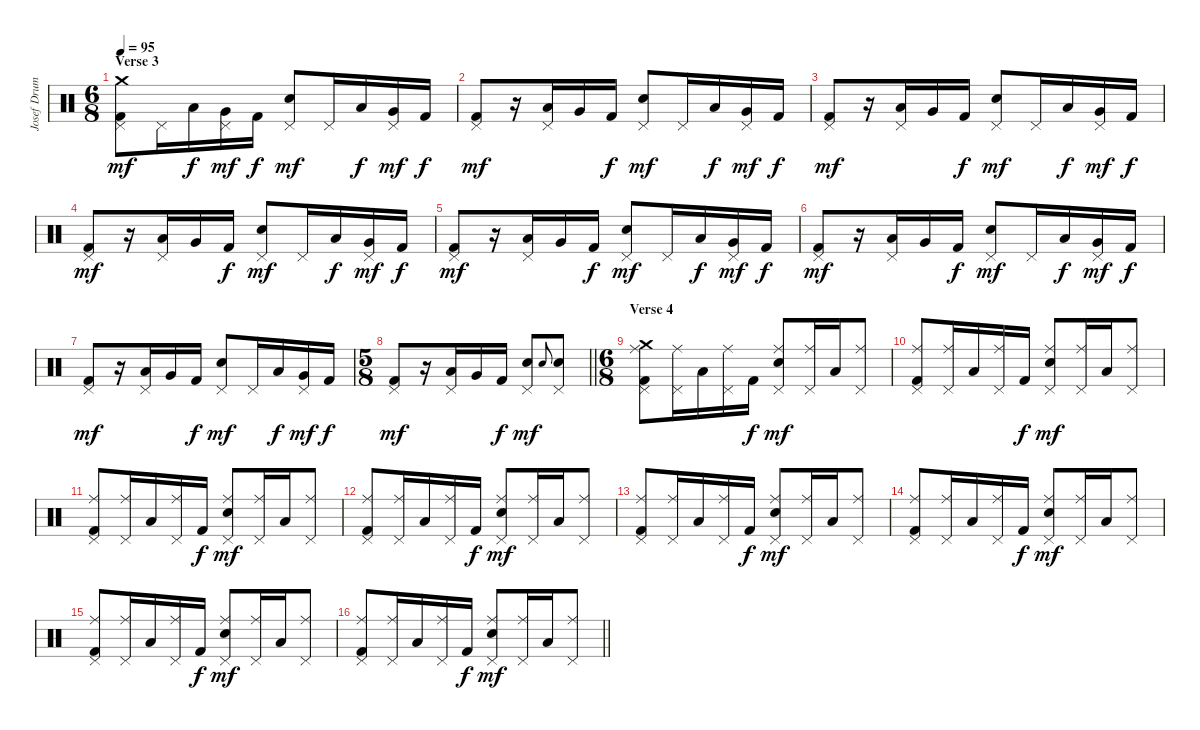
\track ("Josef Drums" "Josef Drum") {instrument percussion}
\staff {score}
\articulation defaults
\ts (6 8)
\section ("" "Verse 3")
\tempo 95
\clef neutral
\ks c
("Crash medium (hit)" "Kick (hit) 2" "Pedal Hi-Hat (hit)").8{dy mf} "Pedal Hi-Hat (hit)".16 "Low Tom (hit)".16{dy f} ("Very Low Tom (hit)" "Pedal Hi-Hat (hit)").16{dy mf} "Kick (hit) 2".16{dy f} ("Electric Snare (hit)" "Pedal Hi-Hat (hit)").8{dy mf} "Pedal Hi-Hat (hit)".16 "Low Tom (hit)".16{dy f} ("Very Low Tom (hit)" "Pedal Hi-Hat (hit)").16{dy mf} "Kick (hit) 2".16{dy f} |
("Kick (hit) 2" "Pedal Hi-Hat (hit)").8{dy mf} r.16 ("Low Tom (hit)" "Pedal Hi-Hat (hit)").16 "Very Low Tom (hit)".16 "Kick (hit) 2".16{dy f} ("Electric Snare (hit)" "Pedal Hi-Hat (hit)").8{dy mf} "Pedal Hi-Hat (hit)".16 "Low Tom (hit)".16{dy f} ("Very Low Tom (hit)" "Pedal Hi-Hat (hit)").16{dy mf} "Kick (hit) 2".16{dy f} |
("Kick (hit) 2" "Pedal Hi-Hat (hit)").8{dy mf} r.16 ("Low Tom (hit)" "Pedal Hi-Hat (hit)").16 "Very Low Tom (hit)".16 "Kick (hit) 2".16{dy f} ("Electric Snare (hit)" "Pedal Hi-Hat (hit)").8{dy mf} "Pedal Hi-Hat (hit)".16 "Low Tom (hit)".16{dy f} ("Very Low Tom (hit)" "Pedal Hi-Hat (hit)").16{dy mf} "Kick (hit) 2".16{dy f} |
("Kick (hit) 2" "Pedal Hi-Hat (hit)").8{dy mf} r.16 ("Low Tom (hit)" "Pedal Hi-Hat (hit)").16 "Very Low Tom (hit)".16 "Kick (hit) 2".16{dy f} ("Electric Snare (hit)" "Pedal Hi-Hat (hit)").8{dy mf} "Pedal Hi-Hat (hit)".16 "Low Tom (hit)".16{dy f} ("Very Low Tom (hit)" "Pedal Hi-Hat (hit)").16{dy mf} "Kick (hit) 2".16{dy f} |
("Kick (hit) 2" "Pedal Hi-Hat (hit)").8{dy mf} r.16 ("Low Tom (hit)" "Pedal Hi-Hat (hit)").16 "Very Low Tom (hit)".16 "Kick (hit) 2".16{dy f} ("Electric Snare (hit)" "Pedal Hi-Hat (hit)").8{dy mf} "Pedal Hi-Hat (hit)".16 "Low Tom (hit)".16{dy f} ("Very Low Tom (hit)" "Pedal Hi-Hat (hit)").16{dy mf} "Kick (hit) 2".16{dy f} |
("Kick (hit) 2" "Pedal Hi-Hat (hit)").8{dy mf} r.16 ("Low Tom (hit)" "Pedal Hi-Hat (hit)").16 "Very Low Tom (hit)".16 "Kick (hit) 2".16{dy f} ("Electric Snare (hit)" "Pedal Hi-Hat (hit)").8{dy mf} "Pedal Hi-Hat (hit)".16 "Low Tom (hit)".16{dy f} ("Very Low Tom (hit)" "Pedal Hi-Hat (hit)").16{dy mf} "Kick (hit) 2".16{dy f} |
("Kick (hit) 2" "Pedal Hi-Hat (hit)").8{dy mf} r.16 ("Low Tom (hit)" "Pedal Hi-Hat (hit)").16 "Very Low Tom (hit)".16 "Kick (hit) 2".16{dy f} ("Electric Snare (hit)" "Pedal Hi-Hat (hit)").8{dy mf} "Pedal Hi-Hat (hit)".16 "Low Tom (hit)".16{dy f} ("Very Low Tom (hit)" "Pedal Hi-Hat (hit)").16{dy mf} "Kick (hit) 2".16{dy f} |
\ts (5 8)
\barLineRight lightlight
("Kick (hit) 2" "Pedal Hi-Hat (hit)").8{dy mf} r.16 ("Low Tom (hit)" "Pedal Hi-Hat (hit)").16 "Very Low Tom (hit)".16 "Kick (hit) 2".16{dy f} ("Electric Snare (hit)" "Pedal Hi-Hat (hit)").8{dy mf} "Electric Snare (hit)".8{gr onbeat} ("Electric Snare (hit)" "Pedal Hi-Hat (hit)").8 |
\ts (6 8)
\section ("" "Verse 4")
("Crash medium (hit)" "Ride (middle)" "Kick (hit) 2" "Pedal Hi-Hat (hit)").8 ("Ride (middle)" "Pedal Hi-Hat (hit)").16 "Low Tom (hit)".16 ("Ride (middle)" "Pedal Hi-Hat (hit)").16 "Kick (hit) 2".16{dy f} ("Ride (middle)" "Electric Snare (hit)" "Pedal Hi-Hat (hit)").8{dy mf} ("Ride (middle)" "Pedal Hi-Hat (hit)").16 "Low Tom (hit)".16 ("Ride (middle)" "Pedal Hi-Hat (hit)").8 |
("Ride (middle)" "Kick (hit) 2" "Pedal Hi-Hat (hit)").8 ("Ride (middle)" "Pedal Hi-Hat (hit)").16 "Low Tom (hit)".16 ("Ride (middle)" "Pedal Hi-Hat (hit)").16 "Kick (hit) 2".16{dy f} ("Ride (middle)" "Electric Snare (hit)" "Pedal Hi-Hat (hit)").8{dy mf} ("Ride (middle)" "Pedal Hi-Hat (hit)").16 "Low Tom (hit)".16 ("Ride (middle)" "Pedal Hi-Hat (hit)").8 |
("Ride (middle)" "Kick (hit) 2" "Pedal Hi-Hat (hit)").8 ("Ride (middle)" "Pedal Hi-Hat (hit)").16 "Low Tom (hit)".16 ("Ride (middle)" "Pedal Hi-Hat (hit)").16 "Kick (hit) 2".16{dy f} ("Ride (middle)" "Electric Snare (hit)" "Pedal Hi-Hat (hit)").8{dy mf} ("Ride (middle)" "Pedal Hi-Hat (hit)").16 "Low Tom (hit)".16 ("Ride (middle)" "Pedal Hi-Hat (hit)").8 |
("Ride (middle)" "Kick (hit) 2" "Pedal Hi-Hat (hit)").8 ("Ride (middle)" "Pedal Hi-Hat (hit)").16 "Low Tom (hit)".16 ("Ride (middle)" "Pedal Hi-Hat (hit)").16 "Kick (hit) 2".16{dy f} ("Ride (middle)" "Electric Snare (hit)" "Pedal Hi-Hat (hit)").8{dy mf} ("Ride (middle)" "Pedal Hi-Hat (hit)").16 "Low Tom (hit)".16 ("Ride (middle)" "Pedal Hi-Hat (hit)").8 |
("Ride (middle)" "Kick (hit) 2" "Pedal Hi-Hat (hit)").8 ("Ride (middle)" "Pedal Hi-Hat (hit)").16 "Low Tom (hit)".16 ("Ride (middle)" "Pedal Hi-Hat (hit)").16 "Kick (hit) 2".16{dy f} ("Ride (middle)" "Electric Snare (hit)" "Pedal Hi-Hat (hit)").8{dy mf} ("Ride (middle)" "Pedal Hi-Hat (hit)").16 "Low Tom (hit)".16 ("Ride (middle)" "Pedal Hi-Hat (hit)").8 |
("Ride (middle)" "Kick (hit) 2" "Pedal Hi-Hat (hit)").8 ("Ride (middle)" "Pedal Hi-Hat (hit)").16 "Low Tom (hit)".16 ("Ride (middle)" "Pedal Hi-Hat (hit)").16 "Kick (hit) 2".16{dy f} ("Ride (middle)" "Electric Snare (hit)" "Pedal Hi-Hat (hit)").8{dy mf} ("Ride (middle)" "Pedal Hi-Hat (hit)").16 "Low Tom (hit)".16 ("Ride (middle)" "Pedal Hi-Hat (hit)").8 |
("Ride (middle)" "Kick (hit) 2" "Pedal Hi-Hat (hit)").8 ("Ride (middle)" "Pedal Hi-Hat (hit)").16 "Low Tom (hit)".16 ("Ride (middle)" "Pedal Hi-Hat (hit)").16 "Kick (hit) 2".16{dy f} ("Ride (middle)" "Electric Snare (hit)" "Pedal Hi-Hat (hit)").8{dy mf} ("Ride (middle)" "Pedal Hi-Hat (hit)").16 "Low Tom (hit)".16 ("Ride (middle)" "Pedal Hi-Hat (hit)").8 |
\barLineRight lightlight
("Ride (middle)" "Kick (hit) 2" "Pedal Hi-Hat (hit)").8 ("Ride (middle)" "Pedal Hi-Hat (hit)").16 "Low Tom (hit)".16 ("Ride (middle)" "Pedal Hi-Hat (hit)").16 "Kick (hit) 2".16{dy f} ("Ride (middle)" "Electric Snare (hit)" "Pedal Hi-Hat (hit)").8{dy mf} ("Ride (middle)" "Pedal Hi-Hat (hit)").16 "Low Tom (hit)".16 ("Ride (middle)" "Pedal Hi-Hat (hit)").8
